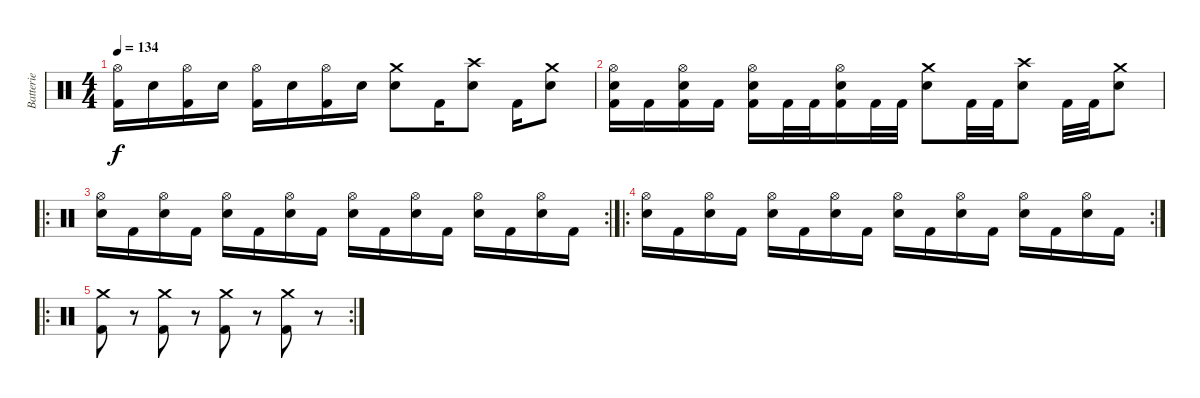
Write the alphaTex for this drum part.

\track ("Batterie" "Batterie") {instrument percussion}
\staff {score}
\articulation defaults
\ts (4 4)
\tempo 134
\clef neutral
\ks c
("Hi-Hat (open)" "Kick (hit) 2").16{dy f} "Electric Snare (hit)".16 ("Hi-Hat (open)" "Kick (hit) 2").16 "Electric Snare (hit)".16 ("Hi-Hat (open)" "Kick (hit) 2").16 "Electric Snare (hit)".16 ("Hi-Hat (open)" "Kick (hit) 2").16 "Electric Snare (hit)".16 ("Crash medium (hit)" "Electric Snare (hit)").8 "Kick (hit) 2".16 ("Crash high (hit)" "Electric Snare (hit)").8 "Kick (hit) 2".16 ("Crash medium (hit)" "Electric Snare (hit)").8 |
("Hi-Hat (open)" "Kick (hit) 2" "Electric Snare (hit)").16 "Kick (hit) 2".16 ("Hi-Hat (open)" "Kick (hit) 2" "Electric Snare (hit)").16 "Kick (hit) 2".16 ("Hi-Hat (open)" "Kick (hit) 2" "Electric Snare (hit)").16 "Kick (hit) 2".32 "Kick (hit) 2".32 ("Hi-Hat (open)" "Kick (hit) 2" "Electric Snare (hit)").16 "Kick (hit) 2".32 "Kick (hit) 2".32 ("Crash medium (hit)" "Electric Snare (hit)").8 "Kick (hit) 2".32 "Kick (hit) 2".32 ("Crash high (hit)" "Electric Snare (hit)").8 "Kick (hit) 2".32 "Kick (hit) 2".32 ("Crash medium (hit)" "Electric Snare (hit)").8 |
\ro
\rc 2
("Hi-Hat (open)" "Electric Snare (hit)").16 "Kick (hit) 2".16 ("Hi-Hat (open)" "Electric Snare (hit)").16 "Kick (hit) 2".16 ("Hi-Hat (open)" "Electric Snare (hit)").16 "Kick (hit) 2".16 ("Hi-Hat (open)" "Electric Snare (hit)").16 "Kick (hit) 2".16 ("Hi-Hat (open)" "Electric Snare (hit)").16 "Kick (hit) 2".16 ("Hi-Hat (open)" "Electric Snare (hit)").16 "Kick (hit) 2".16 ("Hi-Hat (open)" "Electric Snare (hit)").16 "Kick (hit) 2".16 ("Hi-Hat (open)" "Electric Snare (hit)").16 "Kick (hit) 2".16 |
\ro
\rc 2
("Hi-Hat (open)" "Electric Snare (hit)").16 "Kick (hit) 2".16 ("Hi-Hat (open)" "Electric Snare (hit)").16 "Kick (hit) 2".16 ("Hi-Hat (open)" "Electric Snare (hit)").16 "Kick (hit) 2".16 ("Hi-Hat (open)" "Electric Snare (hit)").16 "Kick (hit) 2".16 ("Hi-Hat (open)" "Electric Snare (hit)").16 "Kick (hit) 2".16 ("Hi-Hat (open)" "Electric Snare (hit)").16 "Kick (hit) 2".16 ("Hi-Hat (open)" "Electric Snare (hit)").16 "Kick (hit) 2".16 ("Hi-Hat (open)" "Electric Snare (hit)").16 "Kick (hit) 2".16 |
\ro
\rc 2
("Crash medium (hit)" "Kick (hit) 2").8 r.8 ("Crash medium (hit)" "Kick (hit) 2").8 r.8 ("Crash medium (hit)" "Kick (hit) 2").8 r.8 ("Crash medium (hit)" "Kick (hit) 2").8 r.8
